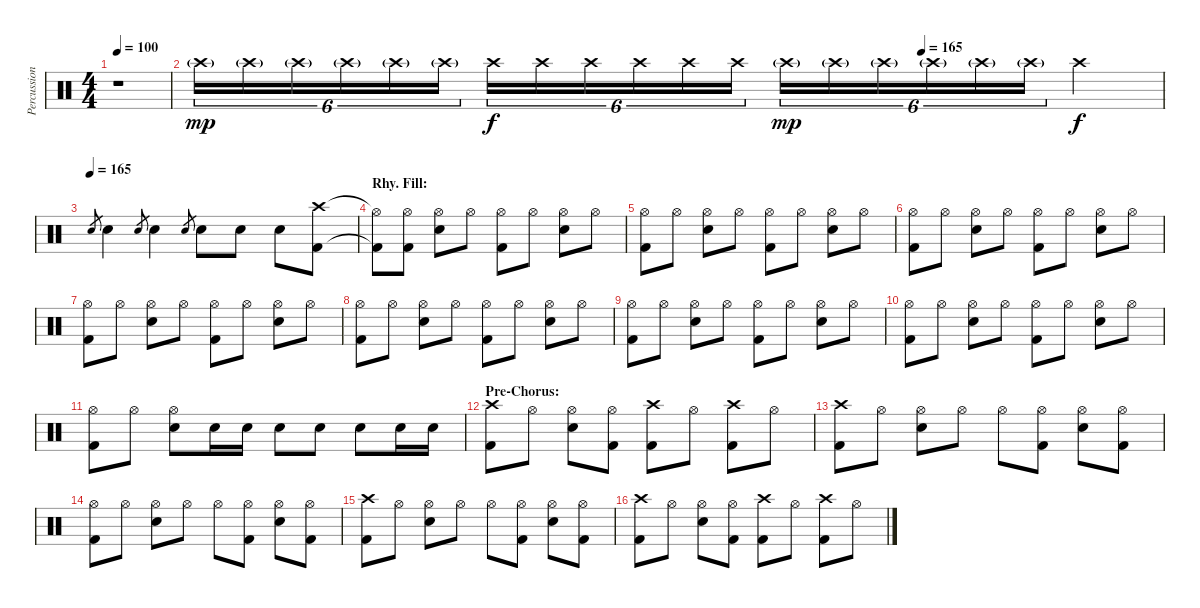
\track ("Percussion" "Percussion") {instrument percussion}
\staff {score}
\articulation defaults
\ts (4 4)
\tempo 100
\clef neutral
\ks c
r.1{dy f} |
\tempo (165 0.75)
"Crash high (hit)"{g}.16{tu (6 4) dy mp} "Crash high (hit)"{g}.16{tu (6 4)} "Crash high (hit)"{g}.16{tu (6 4)} "Crash high (hit)"{g}.16{tu (6 4)} "Crash high (hit)"{g}.16{tu (6 4)} "Crash high (hit)"{g}.16{tu (6 4)} "Crash high (hit)".16{tu (6 4) dy f} "Crash high (hit)".16{tu (6 4)} "Crash high (hit)".16{tu (6 4)} "Crash high (hit)".16{tu (6 4)} "Crash high (hit)".16{tu (6 4)} "Crash high (hit)".16{tu (6 4)} "Crash high (hit)"{g}.16{tu (6 4) dy mp} "Crash high (hit)"{g}.16{tu (6 4)} "Crash high (hit)"{g}.16{tu (6 4)} "Crash high (hit)"{g}.16{tu (6 4)} "Crash high (hit)"{g}.16{tu (6 4)} "Crash high (hit)"{g}.16{tu (6 4)} "Crash high (hit)".4{dy f} |
\tempo (165)
"Snare (hit) 2".8{gr} "Snare (hit) 2".4 "Snare (hit) 2".8{gr} "Snare (hit) 2".4 "Snare (hit) 2".8{gr} "Snare (hit) 2".8 "Snare (hit) 2".8 "Snare (hit) 2".8 ("Crash high (hit)" "Kick (hit) 2").8 |
\section ("" "Rhy. Fill:")
("Hi-Hat (open)"{t} "Kick (hit) 2"{t}).8 ("Hi-Hat (open)" "Kick (hit) 2").8 ("Hi-Hat (open)" "Snare (hit) 2").8 "Hi-Hat (open)".8 ("Hi-Hat (open)" "Kick (hit) 2").8 "Hi-Hat (open)".8 ("Hi-Hat (open)" "Snare (hit) 2").8 "Hi-Hat (open)".8 |
("Hi-Hat (open)" "Kick (hit) 2").8 "Hi-Hat (open)".8 ("Hi-Hat (open)" "Snare (hit) 2").8 "Hi-Hat (open)".8 ("Hi-Hat (open)" "Kick (hit) 2").8 "Hi-Hat (open)".8 ("Hi-Hat (open)" "Snare (hit) 2").8 "Hi-Hat (open)".8 |
("Hi-Hat (open)" "Kick (hit) 2").8 "Hi-Hat (open)".8 ("Hi-Hat (open)" "Snare (hit) 2").8 "Hi-Hat (open)".8 ("Hi-Hat (open)" "Kick (hit) 2").8 "Hi-Hat (open)".8 ("Hi-Hat (open)" "Snare (hit) 2").8 "Hi-Hat (open)".8 |
("Hi-Hat (open)" "Kick (hit) 2").8 "Hi-Hat (open)".8 ("Hi-Hat (open)" "Snare (hit) 2").8 "Hi-Hat (open)".8 ("Hi-Hat (open)" "Kick (hit) 2").8 "Hi-Hat (open)".8 ("Hi-Hat (open)" "Snare (hit) 2").8 "Hi-Hat (open)".8 |
("Hi-Hat (open)" "Kick (hit) 2").8 "Hi-Hat (open)".8 ("Hi-Hat (open)" "Snare (hit) 2").8 "Hi-Hat (open)".8 ("Hi-Hat (open)" "Kick (hit) 2").8 "Hi-Hat (open)".8 ("Hi-Hat (open)" "Snare (hit) 2").8 "Hi-Hat (open)".8 |
("Hi-Hat (open)" "Kick (hit) 2").8 "Hi-Hat (open)".8 ("Hi-Hat (open)" "Snare (hit) 2").8 "Hi-Hat (open)".8 ("Hi-Hat (open)" "Kick (hit) 2").8 "Hi-Hat (open)".8 ("Hi-Hat (open)" "Snare (hit) 2").8 "Hi-Hat (open)".8 |
("Hi-Hat (open)" "Kick (hit) 2").8 "Hi-Hat (open)".8 ("Hi-Hat (open)" "Snare (hit) 2").8 "Hi-Hat (open)".8 ("Hi-Hat (open)" "Kick (hit) 2").8 "Hi-Hat (open)".8 ("Hi-Hat (open)" "Snare (hit) 2").8 "Hi-Hat (open)".8 |
("Hi-Hat (open)" "Kick (hit) 2").8 "Hi-Hat (open)".8 ("Hi-Hat (open)" "Snare (hit) 2").8 "Snare (hit) 2".16 "Snare (hit) 2".16 "Snare (hit) 2".8 "Snare (hit) 2".8 "Snare (hit) 2".8 "Snare (hit) 2".16 "Snare (hit) 2".16 |
\section ("" "Pre-Chorus:")
("Crash high (hit)" "Kick (hit) 2").8 "Hi-Hat (open)".8 ("Hi-Hat (open)" "Snare (hit) 2").8 ("Hi-Hat (open)" "Kick (hit) 2").8 ("Crash high (hit)" "Kick (hit) 2").8 "Hi-Hat (open)".8 ("Crash high (hit)" "Kick (hit) 2").8 "Hi-Hat (open)".8 |
("Crash high (hit)" "Kick (hit) 2").8 "Hi-Hat (open)".8 ("Hi-Hat (open)" "Snare (hit) 2").8 "Hi-Hat (open)".8 "Hi-Hat (open)".8 ("Hi-Hat (open)" "Kick (hit) 2").8 ("Hi-Hat (open)" "Snare (hit) 2").8 ("Hi-Hat (open)" "Kick (hit) 2").8 |
("Hi-Hat (open)" "Kick (hit) 2").8 "Hi-Hat (open)".8 ("Hi-Hat (open)" "Snare (hit) 2").8 "Hi-Hat (open)".8 "Hi-Hat (open)".8 ("Hi-Hat (open)" "Kick (hit) 2").8 ("Hi-Hat (open)" "Snare (hit) 2").8 ("Hi-Hat (open)" "Kick (hit) 2").8 |
("Crash high (hit)" "Kick (hit) 2").8 "Hi-Hat (open)".8 ("Hi-Hat (open)" "Snare (hit) 2").8 "Hi-Hat (open)".8 "Hi-Hat (open)".8 ("Hi-Hat (open)" "Kick (hit) 2").8 ("Hi-Hat (open)" "Snare (hit) 2").8 ("Hi-Hat (open)" "Kick (hit) 2").8 |
("Crash high (hit)" "Kick (hit) 2").8 "Hi-Hat (open)".8 ("Hi-Hat (open)" "Snare (hit) 2").8 ("Hi-Hat (open)" "Kick (hit) 2").8 ("Crash high (hit)" "Kick (hit) 2").8 "Hi-Hat (open)".8 ("Crash high (hit)" "Kick (hit) 2").8 "Hi-Hat (open)".8
